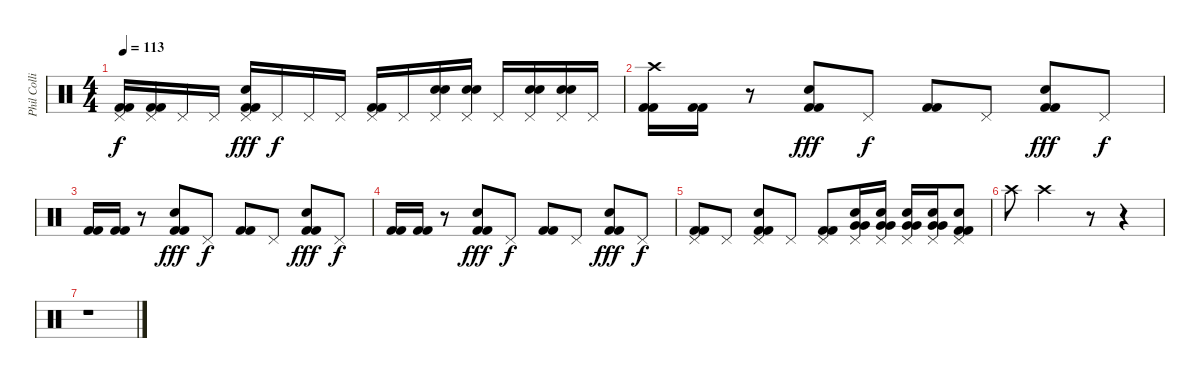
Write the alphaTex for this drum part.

\track ("Phil Collins" "Phil Colli") {instrument percussion}
\staff {score}
\articulation defaults
\ts (4 4)
\tempo 113
\clef neutral
\ks c
("Pedal Hi-Hat (hit)" "Kick (hit) 2" "Kick (hit) 2").16{dy f} ("Pedal Hi-Hat (hit)" "Kick (hit) 2" "Kick (hit) 2").16 "Pedal Hi-Hat (hit)".16 "Pedal Hi-Hat (hit)".16 ("Pedal Hi-Hat (hit)" "Electric Snare (hit)" "Kick (hit) 2" "Kick (hit) 2").16{dy fff} "Pedal Hi-Hat (hit)".16{dy f} "Pedal Hi-Hat (hit)".16 "Pedal Hi-Hat (hit)".16 ("Pedal Hi-Hat (hit)" "Kick (hit) 2" "Kick (hit) 2").16 "Pedal Hi-Hat (hit)".16 ("Pedal Hi-Hat (hit)" "Electric Snare (hit)" "Electric Snare (hit)").16 ("Pedal Hi-Hat (hit)" "Electric Snare (hit)" "Electric Snare (hit)").16 "Pedal Hi-Hat (hit)".16 ("Pedal Hi-Hat (hit)" "Electric Snare (hit)" "Electric Snare (hit)").16 ("Pedal Hi-Hat (hit)" "Electric Snare (hit)" "Electric Snare (hit)").16 "Pedal Hi-Hat (hit)".16 |
("Crash high (hit)" "Kick (hit) 2" "Kick (hit) 2").16 ("Kick (hit) 2" "Kick (hit) 2").16 r.8 ("Electric Snare (hit)" "Kick (hit) 2" "Kick (hit) 2").8{dy fff} "Pedal Hi-Hat (hit)".8{dy f} ("Kick (hit) 2" "Kick (hit) 2").8 "Pedal Hi-Hat (hit)".8 ("Electric Snare (hit)" "Kick (hit) 2" "Kick (hit) 2").8{dy fff} "Pedal Hi-Hat (hit)".8{dy f} |
("Kick (hit) 2" "Kick (hit) 2").16 ("Kick (hit) 2" "Kick (hit) 2").16 r.8 ("Electric Snare (hit)" "Kick (hit) 2" "Kick (hit) 2").8{dy fff} "Pedal Hi-Hat (hit)".8{dy f} ("Kick (hit) 2" "Kick (hit) 2").8 "Pedal Hi-Hat (hit)".8 ("Electric Snare (hit)" "Kick (hit) 2" "Kick (hit) 2").8{dy fff} "Pedal Hi-Hat (hit)".8{dy f} |
("Kick (hit) 2" "Kick (hit) 2").16 ("Kick (hit) 2" "Kick (hit) 2").16 r.8 ("Electric Snare (hit)" "Kick (hit) 2" "Kick (hit) 2").8{dy fff} "Pedal Hi-Hat (hit)".8{dy f} ("Kick (hit) 2" "Kick (hit) 2").8 "Pedal Hi-Hat (hit)".8 ("Electric Snare (hit)" "Kick (hit) 2" "Kick (hit) 2").8{dy fff} "Pedal Hi-Hat (hit)".8{dy f} |
("Pedal Hi-Hat (hit)" "Kick (hit) 2" "Kick (hit) 2").8 "Pedal Hi-Hat (hit)".8 ("Pedal Hi-Hat (hit)" "Electric Snare (hit)" "Kick (hit) 2" "Kick (hit) 2").8 "Pedal Hi-Hat (hit)".8 ("Pedal Hi-Hat (hit)" "Kick (hit) 2" "Kick (hit) 2").8 ("Pedal Hi-Hat (hit)" "Electric Snare (hit)" "Very Low Tom (hit)" "Very Low Tom (hit)").16 ("Pedal Hi-Hat (hit)" "Electric Snare (hit)" "Very Low Tom (hit)" "Very Low Tom (hit)").16 ("Pedal Hi-Hat (hit)" "Electric Snare (hit)" "Very Low Tom (hit)" "Very Low Tom (hit)").16 ("Pedal Hi-Hat (hit)" "Electric Snare (hit)" "Very Low Tom (hit)" "Very Low Tom (hit)").16 ("Pedal Hi-Hat (hit)" "Electric Snare (hit)" "Kick (hit) 2" "Kick (hit) 2").8 |
"Crash high (hit)".8 "Crash high (hit)".2 r.8 r.4 |
r.1
